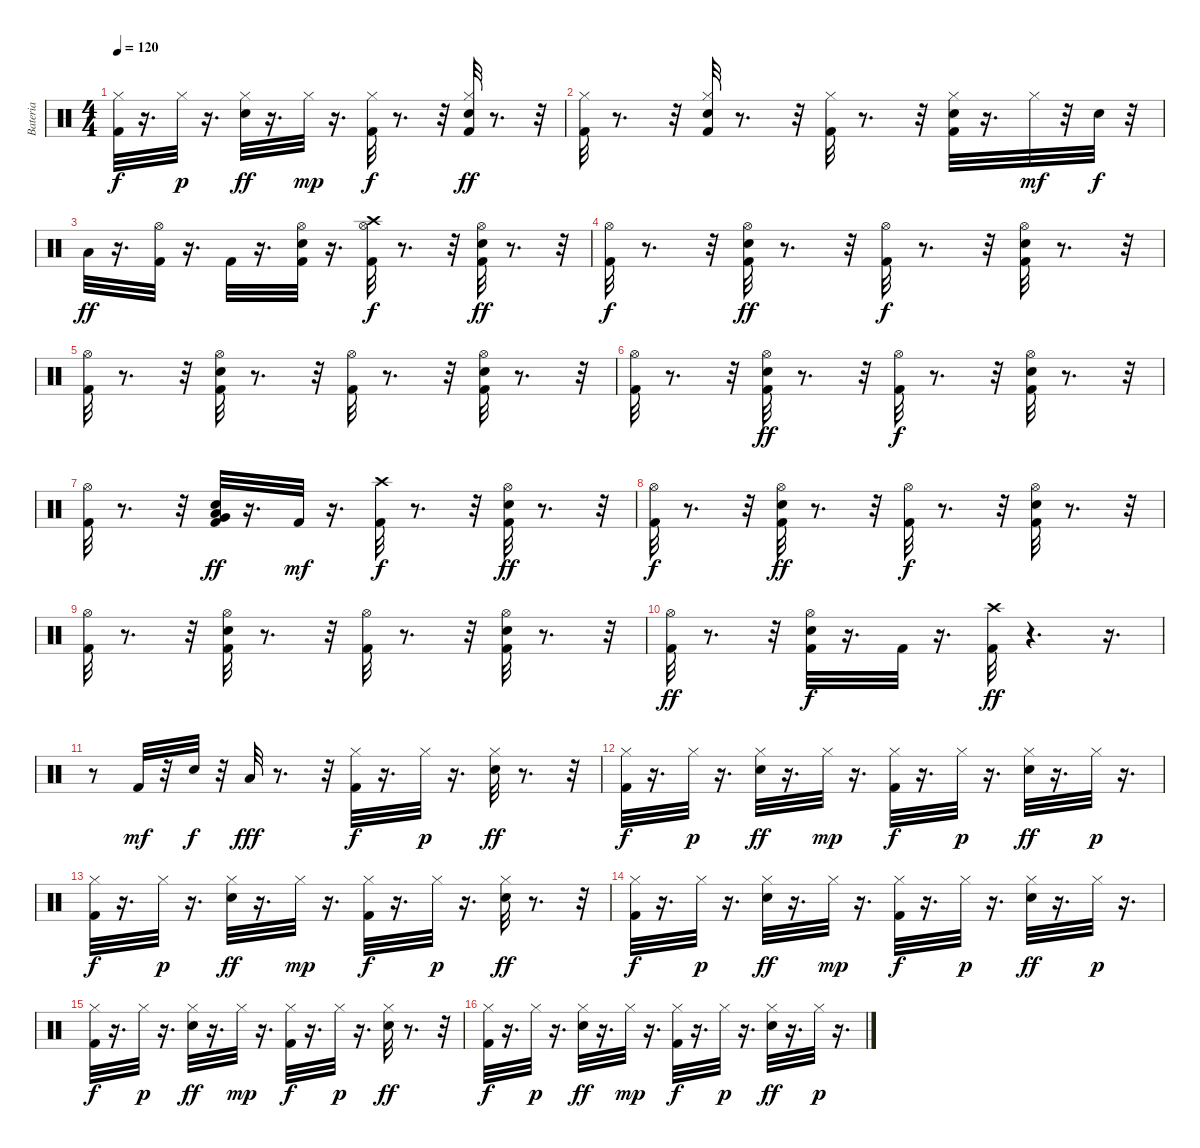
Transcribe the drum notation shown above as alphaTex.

\track ("Bateria" "Bateria") {instrument percussion}
\staff {score}
\articulation defaults
\ts (4 4)
\tempo 120
\clef neutral
\ks c
("Kick (hit) 2" "Hi-Hat (closed)").32{dy f} r.16{d} "Hi-Hat (closed)".32{dy p} r.16{d} ("Electric Snare (hit)" "Hi-Hat (closed)").32{dy ff} r.16{d} "Hi-Hat (closed)".32{dy mp} r.16{d} ("Hi-Hat (closed)" "Kick (hit) 2").32{dy f} r.8{d} r.32 ("Hi-Hat (closed)" "Electric Snare (hit)" "Kick (hit) 2").32{dy ff} r.8{d} r.32 |
("Hi-Hat (closed)" "Kick (hit) 2").32 r.8{d} r.32 ("Hi-Hat (closed)" "Electric Snare (hit)" "Kick (hit) 2").32 r.8{d} r.32 ("Kick (hit) 2" "Hi-Hat (closed)").32 r.8{d} r.32 ("Hi-Hat (closed)" "Electric Snare (hit)" "Kick (hit) 2").32 r.16{d} "Hi-Hat (closed)".32{dy mf} r.32 "Electric Snare (hit)".32{dy f} r.32 |
"Low Tom (hit)".32{dy ff} r.16{d} ("Kick (hit) 2" "Hi-Hat (open)").32 r.16{d} "Kick (hit) 2".32 r.16{d} ("Kick (hit) 2" "Hi-Hat (open)" "Electric Snare (hit)").32 r.16{d} ("Kick (hit) 2" "Crash high (hit)" "Hi-Hat (open)").32{dy f} r.8{d} r.32 ("Electric Snare (hit)" "Kick (hit) 2" "Hi-Hat (open)").32{dy ff} r.8{d} r.32 |
("Hi-Hat (open)" "Kick (hit) 2").32{dy f} r.8{d} r.32 ("Electric Snare (hit)" "Hi-Hat (open)" "Kick (hit) 2").32{dy ff} r.8{d} r.32 ("Hi-Hat (open)" "Kick (hit) 2").32{dy f} r.8{d} r.32 ("Hi-Hat (open)" "Kick (hit) 2" "Electric Snare (hit)").32 r.8{d} r.32 |
("Hi-Hat (open)" "Kick (hit) 2").32 r.8{d} r.32 ("Hi-Hat (open)" "Kick (hit) 2" "Electric Snare (hit)").32 r.8{d} r.32 ("Hi-Hat (open)" "Kick (hit) 2").32 r.8{d} r.32 ("Hi-Hat (open)" "Electric Snare (hit)" "Kick (hit) 2").32 r.8{d} r.32 |
("Hi-Hat (open)" "Kick (hit) 2").32 r.8{d} r.32 ("Kick (hit) 2" "Electric Snare (hit)" "Hi-Hat (open)").32{dy ff} r.8{d} r.32 ("Hi-Hat (open)" "Kick (hit) 2").32{dy f} r.8{d} r.32 ("Hi-Hat (open)" "Kick (hit) 2" "Electric Snare (hit)").32 r.8{d} r.32 |
("Kick (hit) 2" "Hi-Hat (open)").32 r.8{d} r.32 ("Kick (hit) 2" "Electric Snare (hit)" "Very Low Tom (hit)" "Low Tom (hit)").32{dy ff} r.16{d} "Kick (hit) 2".32{dy mf} r.16{d} ("Crash high (hit)" "Kick (hit) 2").32{dy f} r.8{d} r.32 ("Hi-Hat (open)" "Electric Snare (hit)" "Kick (hit) 2").32{dy ff} r.8{d} r.32 |
("Hi-Hat (open)" "Kick (hit) 2").32{dy f} r.8{d} r.32 ("Hi-Hat (open)" "Kick (hit) 2" "Electric Snare (hit)").32{dy ff} r.8{d} r.32 ("Hi-Hat (open)" "Kick (hit) 2").32{dy f} r.8{d} r.32 ("Kick (hit) 2" "Electric Snare (hit)" "Hi-Hat (open)").32 r.8{d} r.32 |
("Hi-Hat (open)" "Kick (hit) 2").32 r.8{d} r.32 ("Hi-Hat (open)" "Kick (hit) 2" "Electric Snare (hit)").32 r.8{d} r.32 ("Hi-Hat (open)" "Kick (hit) 2").32 r.8{d} r.32 ("Electric Snare (hit)" "Kick (hit) 2" "Hi-Hat (open)").32 r.8{d} r.32 |
("Hi-Hat (open)" "Kick (hit) 2").32{dy ff} r.8{d} r.32 ("Kick (hit) 2" "Electric Snare (hit)" "Hi-Hat (open)").32{dy f} r.16{d} "Kick (hit) 2".32 r.16{d} ("Kick (hit) 2" "Crash high (hit)").32{dy ff} r.4{d} r.16{d} |
r.8 "Kick (hit) 2".32{dy mf} r.32 "Electric Snare (hit)".32{dy f} r.32 "Low Tom (hit)".32{dy fff} r.8{d} r.32 ("Kick (hit) 2" "Hi-Hat (closed)").32{dy f} r.16{d} "Hi-Hat (closed)".32{dy p} r.16{d} ("Electric Snare (hit)" "Hi-Hat (closed)").32{dy ff} r.8{d} r.32 |
("Kick (hit) 2" "Hi-Hat (closed)").32{dy f} r.16{d} "Hi-Hat (closed)".32{dy p} r.16{d} ("Electric Snare (hit)" "Hi-Hat (closed)").32{dy ff} r.16{d} "Hi-Hat (closed)".32{dy mp} r.16{d} ("Kick (hit) 2" "Hi-Hat (closed)").32{dy f} r.16{d} "Hi-Hat (closed)".32{dy p} r.16{d} ("Hi-Hat (closed)" "Electric Snare (hit)").32{dy ff} r.16{d} "Hi-Hat (closed)".32{dy p} r.16{d} |
("Kick (hit) 2" "Hi-Hat (closed)").32{dy f} r.16{d} "Hi-Hat (closed)".32{dy p} r.16{d} ("Electric Snare (hit)" "Hi-Hat (closed)").32{dy ff} r.16{d} "Hi-Hat (closed)".32{dy mp} r.16{d} ("Kick (hit) 2" "Hi-Hat (closed)").32{dy f} r.16{d} "Hi-Hat (closed)".32{dy p} r.16{d} ("Electric Snare (hit)" "Hi-Hat (closed)").32{dy ff} r.8{d} r.32 |
("Kick (hit) 2" "Hi-Hat (closed)").32{dy f} r.16{d} "Hi-Hat (closed)".32{dy p} r.16{d} ("Electric Snare (hit)" "Hi-Hat (closed)").32{dy ff} r.16{d} "Hi-Hat (closed)".32{dy mp} r.16{d} ("Kick (hit) 2" "Hi-Hat (closed)").32{dy f} r.16{d} "Hi-Hat (closed)".32{dy p} r.16{d} ("Hi-Hat (closed)" "Electric Snare (hit)").32{dy ff} r.16{d} "Hi-Hat (closed)".32{dy p} r.16{d} |
("Kick (hit) 2" "Hi-Hat (closed)").32{dy f} r.16{d} "Hi-Hat (closed)".32{dy p} r.16{d} ("Electric Snare (hit)" "Hi-Hat (closed)").32{dy ff} r.16{d} "Hi-Hat (closed)".32{dy mp} r.16{d} ("Kick (hit) 2" "Hi-Hat (closed)").32{dy f} r.16{d} "Hi-Hat (closed)".32{dy p} r.16{d} ("Electric Snare (hit)" "Hi-Hat (closed)").32{dy ff} r.8{d} r.32 |
("Kick (hit) 2" "Hi-Hat (closed)").32{dy f} r.16{d} "Hi-Hat (closed)".32{dy p} r.16{d} ("Electric Snare (hit)" "Hi-Hat (closed)").32{dy ff} r.16{d} "Hi-Hat (closed)".32{dy mp} r.16{d} ("Kick (hit) 2" "Hi-Hat (closed)").32{dy f} r.16{d} "Hi-Hat (closed)".32{dy p} r.16{d} ("Hi-Hat (closed)" "Electric Snare (hit)").32{dy ff} r.16{d} "Hi-Hat (closed)".32{dy p} r.16{d}
